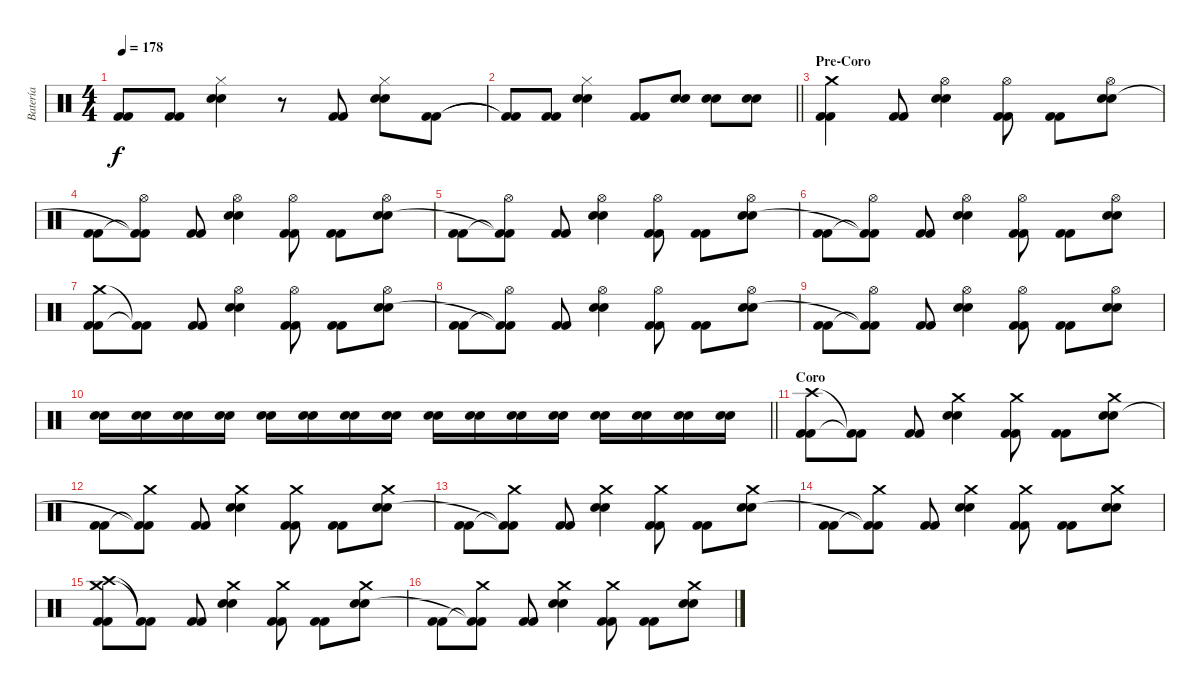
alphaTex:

\track ("Batería" "Batería") {instrument percussion}
\staff {score}
\articulation defaults
\ts (4 4)
\tempo 178
\clef neutral
\ks c
("Kick (hit) 2"{t} "Kick (hit) 2"{t}).8{dy f} ("Kick (hit) 2" "Kick (hit) 2").8 ("Hi-Hat (closed)" "Electric Snare (hit)" "Electric Snare (hit)").4 r.8 ("Kick (hit) 2" "Kick (hit) 2").8 ("Hi-Hat (closed)" "Electric Snare (hit)" "Electric Snare (hit)").8 ("Kick (hit) 2" "Kick (hit) 2").8 |
\barLineRight lightlight
("Kick (hit) 2"{t} "Kick (hit) 2"{t}).8 ("Kick (hit) 2" "Kick (hit) 2").8 ("Hi-Hat (closed)" "Electric Snare (hit)" "Electric Snare (hit)").4 ("Kick (hit) 2" "Kick (hit) 2").8 ("Electric Snare (hit)" "Electric Snare (hit)").8 ("Electric Snare (hit)" "Electric Snare (hit)").8 ("Electric Snare (hit)" "Electric Snare (hit)").8 |
\section ("" "Pre-Coro")
("Crash medium (hit)" "Kick (hit) 2" "Kick (hit) 2").4{volume 14} ("Kick (hit) 2" "Kick (hit) 2").8 ("Hi-Hat (open)" "Electric Snare (hit)" "Electric Snare (hit)").4 ("Hi-Hat (open)" "Kick (hit) 2" "Kick (hit) 2").8 ("Kick (hit) 2" "Kick (hit) 2").8 ("Hi-Hat (open)" "Electric Snare (hit)" "Electric Snare (hit)").8 |
("Kick (hit) 2" "Kick (hit) 2").8 ("Hi-Hat (open)" "Kick (hit) 2"{t} "Kick (hit) 2"{t}).8 ("Kick (hit) 2" "Kick (hit) 2").8 ("Hi-Hat (open)" "Electric Snare (hit)" "Electric Snare (hit)").4 ("Hi-Hat (open)" "Kick (hit) 2" "Kick (hit) 2").8 ("Kick (hit) 2" "Kick (hit) 2").8 ("Hi-Hat (open)" "Electric Snare (hit)" "Electric Snare (hit)").8 |
("Kick (hit) 2" "Kick (hit) 2").8 ("Hi-Hat (open)" "Kick (hit) 2"{t} "Kick (hit) 2"{t}).8 ("Kick (hit) 2" "Kick (hit) 2").8 ("Hi-Hat (open)" "Electric Snare (hit)" "Electric Snare (hit)").4 ("Hi-Hat (open)" "Kick (hit) 2" "Kick (hit) 2").8 ("Kick (hit) 2" "Kick (hit) 2").8 ("Hi-Hat (open)" "Electric Snare (hit)" "Electric Snare (hit)").8 |
("Kick (hit) 2" "Kick (hit) 2").8 ("Hi-Hat (open)" "Kick (hit) 2"{t} "Kick (hit) 2"{t}).8 ("Kick (hit) 2" "Kick (hit) 2").8 ("Hi-Hat (open)" "Electric Snare (hit)" "Electric Snare (hit)").4 ("Hi-Hat (open)" "Kick (hit) 2" "Kick (hit) 2").8 ("Kick (hit) 2" "Kick (hit) 2").8 ("Hi-Hat (open)" "Electric Snare (hit)" "Electric Snare (hit)").8 |
("Crash medium (hit)" "Kick (hit) 2" "Kick (hit) 2").8 ("Kick (hit) 2"{t} "Kick (hit) 2"{t}).8 ("Kick (hit) 2" "Kick (hit) 2").8 ("Hi-Hat (open)" "Electric Snare (hit)" "Electric Snare (hit)").4 ("Hi-Hat (open)" "Kick (hit) 2" "Kick (hit) 2").8 ("Kick (hit) 2" "Kick (hit) 2").8 ("Hi-Hat (open)" "Electric Snare (hit)" "Electric Snare (hit)").8 |
("Kick (hit) 2" "Kick (hit) 2").8 ("Hi-Hat (open)" "Kick (hit) 2"{t} "Kick (hit) 2"{t}).8 ("Kick (hit) 2" "Kick (hit) 2").8 ("Hi-Hat (open)" "Electric Snare (hit)" "Electric Snare (hit)").4 ("Hi-Hat (open)" "Kick (hit) 2" "Kick (hit) 2").8 ("Kick (hit) 2" "Kick (hit) 2").8 ("Hi-Hat (open)" "Electric Snare (hit)" "Electric Snare (hit)").8 |
("Kick (hit) 2" "Kick (hit) 2").8 ("Hi-Hat (open)" "Kick (hit) 2"{t} "Kick (hit) 2"{t}).8 ("Kick (hit) 2" "Kick (hit) 2").8 ("Hi-Hat (open)" "Electric Snare (hit)" "Electric Snare (hit)").4 ("Hi-Hat (open)" "Kick (hit) 2" "Kick (hit) 2").8 ("Kick (hit) 2" "Kick (hit) 2").8 ("Hi-Hat (open)" "Electric Snare (hit)" "Electric Snare (hit)").8 |
\barLineRight lightlight
("Electric Snare (hit)" "Electric Snare (hit)").16 ("Electric Snare (hit)" "Electric Snare (hit)").16 ("Electric Snare (hit)" "Electric Snare (hit)").16 ("Electric Snare (hit)" "Electric Snare (hit)").16 ("Electric Snare (hit)" "Electric Snare (hit)").16 ("Electric Snare (hit)" "Electric Snare (hit)").16 ("Electric Snare (hit)" "Electric Snare (hit)").16 ("Electric Snare (hit)" "Electric Snare (hit)").16 ("Electric Snare (hit)" "Electric Snare (hit)").16 ("Electric Snare (hit)" "Electric Snare (hit)").16 ("Electric Snare (hit)" "Electric Snare (hit)").16 ("Electric Snare (hit)" "Electric Snare (hit)").16 ("Electric Snare (hit)" "Electric Snare (hit)").16 ("Electric Snare (hit)" "Electric Snare (hit)").16 ("Electric Snare (hit)" "Electric Snare (hit)").16 ("Electric Snare (hit)" "Electric Snare (hit)").16 |
\section ("" "Coro")
("Crash high (hit)" "Kick (hit) 2" "Kick (hit) 2").8 ("Kick (hit) 2"{t} "Kick (hit) 2"{t}).8 ("Kick (hit) 2" "Kick (hit) 2").8 ("Crash medium (hit)" "Electric Snare (hit)" "Electric Snare (hit)").4 ("Crash medium (hit)" "Kick (hit) 2" "Kick (hit) 2").8 ("Kick (hit) 2" "Kick (hit) 2").8 ("Crash medium (hit)" "Electric Snare (hit)" "Electric Snare (hit)").8 |
("Kick (hit) 2" "Kick (hit) 2").8 ("Crash medium (hit)" "Kick (hit) 2"{t} "Kick (hit) 2"{t}).8 ("Kick (hit) 2" "Kick (hit) 2").8 ("Crash medium (hit)" "Electric Snare (hit)" "Electric Snare (hit)").4 ("Crash medium (hit)" "Kick (hit) 2" "Kick (hit) 2").8 ("Kick (hit) 2" "Kick (hit) 2").8 ("Crash medium (hit)" "Electric Snare (hit)" "Electric Snare (hit)").8 |
("Kick (hit) 2" "Kick (hit) 2").8 ("Crash medium (hit)" "Kick (hit) 2"{t} "Kick (hit) 2"{t}).8 ("Kick (hit) 2" "Kick (hit) 2").8 ("Crash medium (hit)" "Electric Snare (hit)" "Electric Snare (hit)").4 ("Crash medium (hit)" "Kick (hit) 2" "Kick (hit) 2").8 ("Kick (hit) 2" "Kick (hit) 2").8 ("Crash medium (hit)" "Electric Snare (hit)" "Electric Snare (hit)").8 |
("Kick (hit) 2" "Kick (hit) 2").8 ("Crash medium (hit)" "Kick (hit) 2"{t} "Kick (hit) 2"{t}).8 ("Kick (hit) 2" "Kick (hit) 2").8 ("Crash medium (hit)" "Electric Snare (hit)" "Electric Snare (hit)").4 ("Crash medium (hit)" "Kick (hit) 2" "Kick (hit) 2").8 ("Kick (hit) 2" "Kick (hit) 2").8 ("Crash medium (hit)" "Electric Snare (hit)" "Electric Snare (hit)").8 |
("Crash medium (hit)" "Crash high (hit)" "Kick (hit) 2" "Kick (hit) 2").8 ("Kick (hit) 2"{t} "Kick (hit) 2"{t}).8 ("Kick (hit) 2" "Kick (hit) 2").8 ("Crash medium (hit)" "Electric Snare (hit)" "Electric Snare (hit)").4 ("Crash medium (hit)" "Kick (hit) 2" "Kick (hit) 2").8 ("Kick (hit) 2" "Kick (hit) 2").8 ("Crash medium (hit)" "Electric Snare (hit)" "Electric Snare (hit)").8 |
("Kick (hit) 2" "Kick (hit) 2").8 ("Crash medium (hit)" "Kick (hit) 2"{t} "Kick (hit) 2"{t}).8 ("Kick (hit) 2" "Kick (hit) 2").8 ("Crash medium (hit)" "Electric Snare (hit)" "Electric Snare (hit)").4 ("Crash medium (hit)" "Kick (hit) 2" "Kick (hit) 2").8 ("Kick (hit) 2" "Kick (hit) 2").8 ("Crash medium (hit)" "Electric Snare (hit)" "Electric Snare (hit)").8
